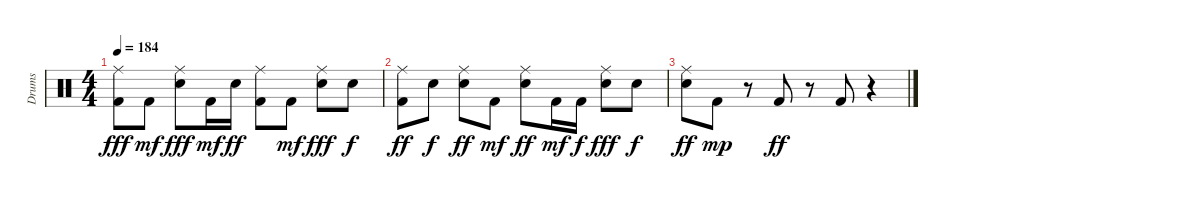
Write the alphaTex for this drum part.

\track ("Drums" "Drums") {instrument percussion}
\staff {score}
\articulation defaults
\ts (4 4)
\tempo 184
\clef neutral
\ks c
("Kick (hit) 2" "Ride (middle)").8{dy fff} "Kick (hit) 2".8{dy mf} ("Snare (hit) 2" "Ride (middle)").8{dy fff} "Kick (hit) 2".16{dy mf} "Snare (hit) 2".16{dy ff} ("Kick (hit) 2" "Ride (middle)").8 "Kick (hit) 2".8{dy mf} ("Snare (hit) 2" "Ride (middle)").8{dy fff} "Snare (hit) 2".8{dy f} |
("Kick (hit) 2" "Ride (middle)").8{dy ff} "Snare (hit) 2".8{dy f} ("Snare (hit) 2" "Ride (middle)").8{dy ff} "Kick (hit) 2".8{dy mf} ("Snare (hit) 2" "Ride (middle)").8{dy ff} "Kick (hit) 2".16{dy mf} "Kick (hit) 2".16{dy f} ("Snare (hit) 2" "Ride (middle)").8{dy fff} "Snare (hit) 2".8{dy f} |
("Snare (hit) 2" "Ride (middle)").8{dy ff} "Kick (hit) 2".8{dy mp} r.8 "Kick (hit) 2".8{dy ff} r.8 "Kick (hit) 2".8 r.4
